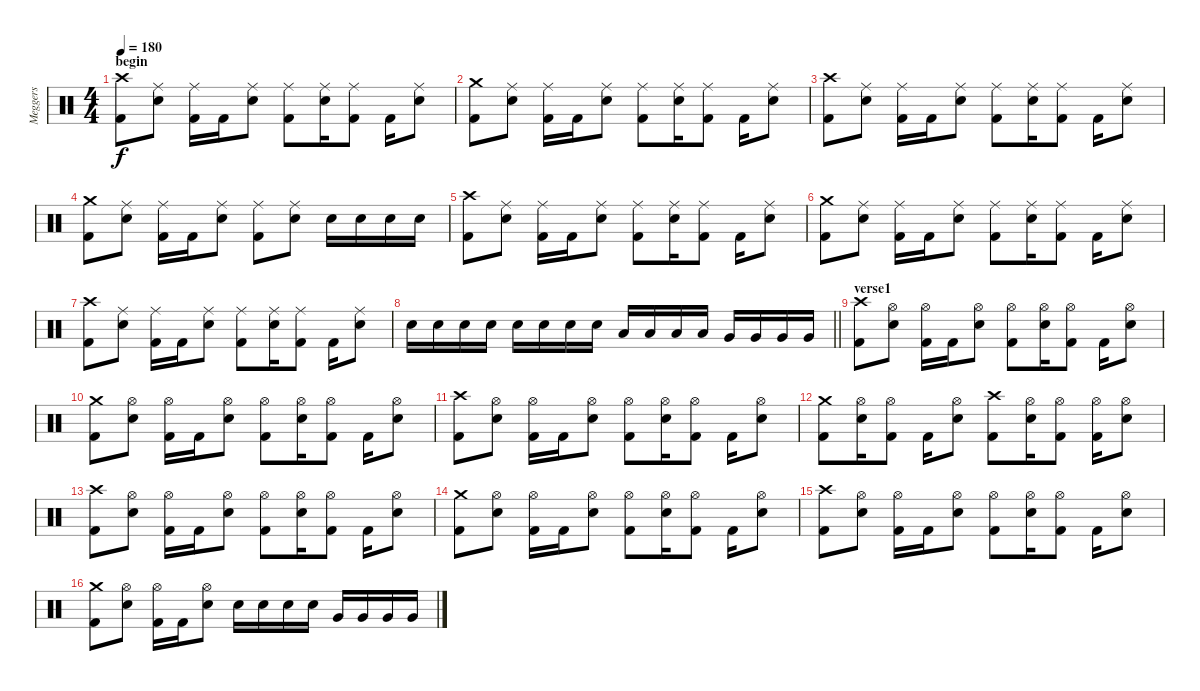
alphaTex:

\track ("Meggers" "Meggers") {instrument percussion}
\staff {score}
\articulation defaults
\ts (4 4)
\section ("" "begin")
\tempo 180
\clef neutral
\ks c
("Crash high (hit)" "Kick (hit) 2").8{dy f} ("Ride (middle)" "Snare (hit) 2").8 ("Ride (middle)" "Kick (hit) 2").16 "Kick (hit) 2".16 ("Ride (middle)" "Snare (hit) 2").8 ("Ride (middle)" "Kick (hit) 2").8 ("Ride (middle)" "Snare (hit) 2").16 ("Ride (middle)" "Kick (hit) 2").8 "Kick (hit) 2".16 ("Ride (middle)" "Snare (hit) 2").8 |
("Crash medium (hit)" "Kick (hit) 2").8 ("Ride (middle)" "Snare (hit) 2").8 ("Ride (middle)" "Kick (hit) 2").16 "Kick (hit) 2".16 ("Ride (middle)" "Snare (hit) 2").8 ("Ride (middle)" "Kick (hit) 2").8 ("Ride (middle)" "Snare (hit) 2").16 ("Ride (middle)" "Kick (hit) 2").8 "Kick (hit) 2".16 ("Ride (middle)" "Snare (hit) 2").8 |
("Crash high (hit)" "Kick (hit) 2").8 ("Ride (middle)" "Snare (hit) 2").8 ("Ride (middle)" "Kick (hit) 2").16 "Kick (hit) 2".16 ("Ride (middle)" "Snare (hit) 2").8 ("Ride (middle)" "Kick (hit) 2").8 ("Ride (middle)" "Snare (hit) 2").16 ("Ride (middle)" "Kick (hit) 2").8 "Kick (hit) 2".16 ("Ride (middle)" "Snare (hit) 2").8 |
("Crash medium (hit)" "Kick (hit) 2").8 ("Ride (middle)" "Snare (hit) 2").8 ("Ride (middle)" "Kick (hit) 2").16 "Kick (hit) 2".16 ("Ride (middle)" "Snare (hit) 2").8 ("Ride (middle)" "Kick (hit) 2").8 ("Ride (middle)" "Snare (hit) 2").8 "Snare (hit) 2".16 "Snare (hit) 2".16 "Snare (hit) 2".16 "Snare (hit) 2".16 |
("Crash high (hit)" "Kick (hit) 2").8 ("Ride (middle)" "Snare (hit) 2").8 ("Ride (middle)" "Kick (hit) 2").16 "Kick (hit) 2".16 ("Ride (middle)" "Snare (hit) 2").8 ("Ride (middle)" "Kick (hit) 2").8 ("Ride (middle)" "Snare (hit) 2").16 ("Ride (middle)" "Kick (hit) 2").8 "Kick (hit) 2".16 ("Ride (middle)" "Snare (hit) 2").8 |
("Crash medium (hit)" "Kick (hit) 2").8 ("Ride (middle)" "Snare (hit) 2").8 ("Ride (middle)" "Kick (hit) 2").16 "Kick (hit) 2".16 ("Ride (middle)" "Snare (hit) 2").8 ("Ride (middle)" "Kick (hit) 2").8 ("Ride (middle)" "Snare (hit) 2").16 ("Ride (middle)" "Kick (hit) 2").8 "Kick (hit) 2".16 ("Ride (middle)" "Snare (hit) 2").8 |
("Crash high (hit)" "Kick (hit) 2").8 ("Ride (middle)" "Snare (hit) 2").8 ("Ride (middle)" "Kick (hit) 2").16 "Kick (hit) 2".16 ("Ride (middle)" "Snare (hit) 2").8 ("Ride (middle)" "Kick (hit) 2").8 ("Ride (middle)" "Snare (hit) 2").16 ("Ride (middle)" "Kick (hit) 2").8 "Kick (hit) 2".16 ("Ride (middle)" "Snare (hit) 2").8 |
\barLineRight lightlight "Snare (hit) 2".16 "Snare (hit) 2".16 "Snare (hit) 2".16 "Snare (hit) 2".16 "Snare (hit) 2".16 "Snare (hit) 2".16 "Snare (hit) 2".16 "Snare (hit) 2".16 "Low Tom (hit)".16 "Low Tom (hit)".16 "Low Tom (hit)".16 "Low Tom (hit)".16 "Very Low Tom (hit)".16 "Very Low Tom (hit)".16 "Very Low Tom (hit)".16 "Very Low Tom (hit)".16
|
\section ("" "verse1")
("Crash high (hit)" "Kick (hit) 2").8 ("Hi-Hat (open)" "Snare (hit) 2").8 ("Hi-Hat (open)" "Kick (hit) 2").16 "Kick (hit) 2".16 ("Hi-Hat (open)" "Snare (hit) 2").8 ("Hi-Hat (open)" "Kick (hit) 2").8 ("Hi-Hat (open)" "Snare (hit) 2").16 ("Hi-Hat (open)" "Kick (hit) 2").8 "Kick (hit) 2".16 ("Hi-Hat (open)" "Snare (hit) 2").8 |
("Crash medium (hit)" "Kick (hit) 2").8 ("Hi-Hat (open)" "Snare (hit) 2").8 ("Hi-Hat (open)" "Kick (hit) 2").16 "Kick (hit) 2".16 ("Hi-Hat (open)" "Snare (hit) 2").8 ("Hi-Hat (open)" "Kick (hit) 2").8 ("Hi-Hat (open)" "Snare (hit) 2").16 ("Hi-Hat (open)" "Kick (hit) 2").8 "Kick (hit) 2".16 ("Hi-Hat (open)" "Snare (hit) 2").8 |
("Crash high (hit)" "Kick (hit) 2").8 ("Hi-Hat (open)" "Snare (hit) 2").8 ("Hi-Hat (open)" "Kick (hit) 2").16 "Kick (hit) 2".16 ("Hi-Hat (open)" "Snare (hit) 2").8 ("Hi-Hat (open)" "Kick (hit) 2").8 ("Hi-Hat (open)" "Snare (hit) 2").16 ("Hi-Hat (open)" "Kick (hit) 2").8 "Kick (hit) 2".16 ("Hi-Hat (open)" "Snare (hit) 2").8 |
("Crash medium (hit)" "Kick (hit) 2").8 ("Hi-Hat (open)" "Snare (hit) 2").16 ("Hi-Hat (open)" "Kick (hit) 2").8 "Kick (hit) 2".16 ("Hi-Hat (open)" "Snare (hit) 2").8 ("Crash high (hit)" "Kick (hit) 2").8 ("Hi-Hat (open)" "Snare (hit) 2").16 ("Hi-Hat (open)" "Kick (hit) 2").8 ("Hi-Hat (open)" "Kick (hit) 2").16 ("Hi-Hat (open)" "Snare (hit) 2").8 |
("Crash high (hit)" "Kick (hit) 2").8 ("Hi-Hat (open)" "Snare (hit) 2").8 ("Hi-Hat (open)" "Kick (hit) 2").16 "Kick (hit) 2".16 ("Hi-Hat (open)" "Snare (hit) 2").8 ("Hi-Hat (open)" "Kick (hit) 2").8 ("Hi-Hat (open)" "Snare (hit) 2").16 ("Hi-Hat (open)" "Kick (hit) 2").8 "Kick (hit) 2".16 ("Hi-Hat (open)" "Snare (hit) 2").8 |
("Crash medium (hit)" "Kick (hit) 2").8 ("Hi-Hat (open)" "Snare (hit) 2").8 ("Hi-Hat (open)" "Kick (hit) 2").16 "Kick (hit) 2".16 ("Hi-Hat (open)" "Snare (hit) 2").8 ("Hi-Hat (open)" "Kick (hit) 2").8 ("Hi-Hat (open)" "Snare (hit) 2").16 ("Hi-Hat (open)" "Kick (hit) 2").8 "Kick (hit) 2".16 ("Hi-Hat (open)" "Snare (hit) 2").8 |
("Crash high (hit)" "Kick (hit) 2").8 ("Hi-Hat (open)" "Snare (hit) 2").8 ("Hi-Hat (open)" "Kick (hit) 2").16 "Kick (hit) 2".16 ("Hi-Hat (open)" "Snare (hit) 2").8 ("Hi-Hat (open)" "Kick (hit) 2").8 ("Hi-Hat (open)" "Snare (hit) 2").16 ("Hi-Hat (open)" "Kick (hit) 2").8 "Kick (hit) 2".16 ("Hi-Hat (open)" "Snare (hit) 2").8 |
("Crash medium (hit)" "Kick (hit) 2").8 ("Hi-Hat (open)" "Snare (hit) 2").8 ("Hi-Hat (open)" "Kick (hit) 2").16 "Kick (hit) 2".16 ("Hi-Hat (open)" "Snare (hit) 2").8 "Snare (hit) 2".16 "Snare (hit) 2".16 "Snare (hit) 2".16 "Snare (hit) 2".16 "Very Low Tom (hit)".16 "Very Low Tom (hit)".16 "Very Low Tom (hit)".16 "Very Low Tom (hit)".16
